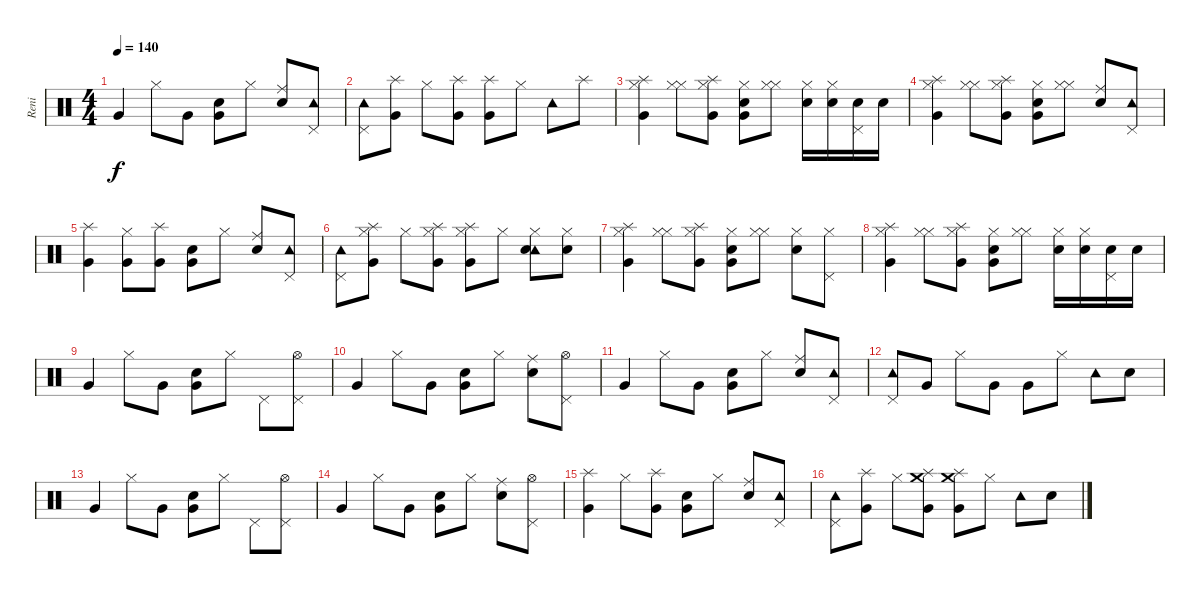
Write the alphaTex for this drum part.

\track ("Reni" "Reni") {instrument percussion}
\staff {score}
\articulation defaults
\ts (4 4)
\tempo 140
\clef neutral
\ks c "Very Low Tom (hit)".4{dy f} "Hi-Hat (closed)".8 "Very Low Tom (hit)".8
("Snare (hit) 2" "Very Low Tom (hit)").8 "Hi-Hat (closed)".8 ("Ride (middle)" "Snare (hit) 2").8 ("Tambourine (hit)" "Pedal Hi-Hat (hit)").8 |
("Tambourine (hit)" "Pedal Hi-Hat (hit)").8 ("Splash (hit)" "Very Low Tom (hit)").8 "Hi-Hat (closed)".8 ("Splash (hit)" "Very Low Tom (hit)").8 ("Splash (hit)" "Very Low Tom (hit)").8 "Hi-Hat (closed)".8 "Tambourine (hit)".8 "Splash (hit)".8 |
("Hi-Hat (closed)" "Splash (hit)" "Very Low Tom (hit)").4 ("Hi-Hat (closed)" "Hi-Hat (closed)").8 ("Hi-Hat (closed)" "Splash (hit)" "Very Low Tom (hit)").8 ("Hi-Hat (closed)" "Snare (hit) 2" "Very Low Tom (hit)").8 ("Hi-Hat (closed)" "Hi-Hat (closed)").8 ("Hi-Hat (closed)" "Snare (hit) 2").16 ("Hi-Hat (closed)" "Snare (hit) 2").16 ("Pedal Hi-Hat (hit)" "Snare (hit) 2").16 "Snare (hit) 2".16 |
("Hi-Hat (closed)" "Splash (hit)" "Very Low Tom (hit)").4 ("Hi-Hat (closed)" "Hi-Hat (closed)").8 ("Hi-Hat (closed)" "Splash (hit)" "Very Low Tom (hit)").8 ("Hi-Hat (closed)" "Snare (hit) 2" "Very Low Tom (hit)").8 ("Hi-Hat (closed)" "Hi-Hat (closed)").8 ("Ride (middle)" "Snare (hit) 2").8 ("Tambourine (hit)" "Pedal Hi-Hat (hit)").8 |
("Splash (hit)" "Very Low Tom (hit)").4 ("Hi-Hat (closed)" "Very Low Tom (hit)").8 ("Splash (hit)" "Very Low Tom (hit)").8 ("Snare (hit) 2" "Very Low Tom (hit)").8 "Hi-Hat (closed)".8 ("Ride (middle)" "Snare (hit) 2").8 ("Tambourine (hit)" "Pedal Hi-Hat (hit)").8 |
("Tambourine (hit)" "Pedal Hi-Hat (hit)").8 ("Hi-Hat (closed)" "Splash (hit)" "Very Low Tom (hit)").8 "Hi-Hat (closed)".8 ("Hi-Hat (closed)" "Splash (hit)" "Very Low Tom (hit)").8 ("Hi-Hat (closed)" "Splash (hit)" "Very Low Tom (hit)").8 "Hi-Hat (closed)".8 ("Hi-Hat (closed)" "Tambourine (hit)" "Electric Snare (hit)").8 ("Hi-Hat (closed)" "Snare (hit) 2").8 |
("Hi-Hat (closed)" "Splash (hit)" "Very Low Tom (hit)").4 ("Hi-Hat (closed)" "Hi-Hat (closed)").8 ("Hi-Hat (closed)" "Splash (hit)" "Very Low Tom (hit)").8 ("Hi-Hat (closed)" "Snare (hit) 2" "Very Low Tom (hit)").8 ("Hi-Hat (closed)" "Hi-Hat (closed)").8 ("Hi-Hat (closed)" "Snare (hit) 2").8 ("Hi-Hat (closed)" "Pedal Hi-Hat (hit)").8 |
("Hi-Hat (closed)" "Splash (hit)" "Very Low Tom (hit)").4 ("Hi-Hat (closed)" "Hi-Hat (closed)").8 ("Hi-Hat (closed)" "Splash (hit)" "Very Low Tom (hit)").8 ("Hi-Hat (closed)" "Snare (hit) 2" "Very Low Tom (hit)").8 ("Hi-Hat (closed)" "Hi-Hat (closed)").8 ("Hi-Hat (closed)" "Snare (hit) 2").16 ("Hi-Hat (closed)" "Snare (hit) 2").16 ("Pedal Hi-Hat (hit)" "Snare (hit) 2").16 "Snare (hit) 2".16 |
"Very Low Tom (hit)".4 "Hi-Hat (closed)".8 "Very Low Tom (hit)".8 ("Snare (hit) 2" "Very Low Tom (hit)").8 "Hi-Hat (closed)".8 "Pedal Hi-Hat (hit)".8 ("Hi-Hat (open)" "Pedal Hi-Hat (hit)").8 |
"Very Low Tom (hit)".4 "Hi-Hat (closed)".8 "Very Low Tom (hit)".8 ("Snare (hit) 2" "Very Low Tom (hit)").8 "Hi-Hat (closed)".8 ("Ride (middle)" "Snare (hit) 2").8 ("Hi-Hat (open)" "Pedal Hi-Hat (hit)").8 |
"Very Low Tom (hit)".4 "Hi-Hat (closed)".8 "Very Low Tom (hit)".8 ("Snare (hit) 2" "Very Low Tom (hit)").8 "Hi-Hat (closed)".8 ("Ride (middle)" "Snare (hit) 2").8 ("Tambourine (hit)" "Pedal Hi-Hat (hit)").8 |
("Tambourine (hit)" "Pedal Hi-Hat (hit)").8 "Very Low Tom (hit)".8 "Hi-Hat (closed)".8 "Very Low Tom (hit)".8 "Very Low Tom (hit)".8 "Hi-Hat (closed)".8 "Tambourine (hit)".8 "Snare (hit) 2".8 |
"Very Low Tom (hit)".4 "Hi-Hat (closed)".8 "Very Low Tom (hit)".8 ("Snare (hit) 2" "Very Low Tom (hit)").8 "Hi-Hat (closed)".8 "Pedal Hi-Hat (hit)".8 ("Hi-Hat (open)" "Pedal Hi-Hat (hit)").8 |
"Very Low Tom (hit)".4 "Hi-Hat (closed)".8 "Very Low Tom (hit)".8 ("Snare (hit) 2" "Very Low Tom (hit)").8 "Hi-Hat (closed)".8 ("Ride (middle)" "Snare (hit) 2").8 ("Hi-Hat (open)" "Pedal Hi-Hat (hit)").8 |
("Splash (hit)" "Very Low Tom (hit)").4 "Hi-Hat (closed)".8 ("Splash (hit)" "Very Low Tom (hit)").8 ("Snare (hit) 2" "Very Low Tom (hit)").8 "Hi-Hat (closed)".8 ("Ride (middle)" "Snare (hit) 2").8 ("Tambourine (hit)" "Pedal Hi-Hat (hit)").8 |
("Tambourine (hit)" "Pedal Hi-Hat (hit)").8 ("Splash (hit)" "Very Low Tom (hit)").8 "Hi-Hat (closed)".8 ("Crash medium (hit)" "Splash (hit)" "Very Low Tom (hit)").8 ("Crash medium (hit)" "Splash (hit)" "Very Low Tom (hit)").8 "Hi-Hat (closed)".8 "Tambourine (hit)".8 "Snare (hit) 2".8
